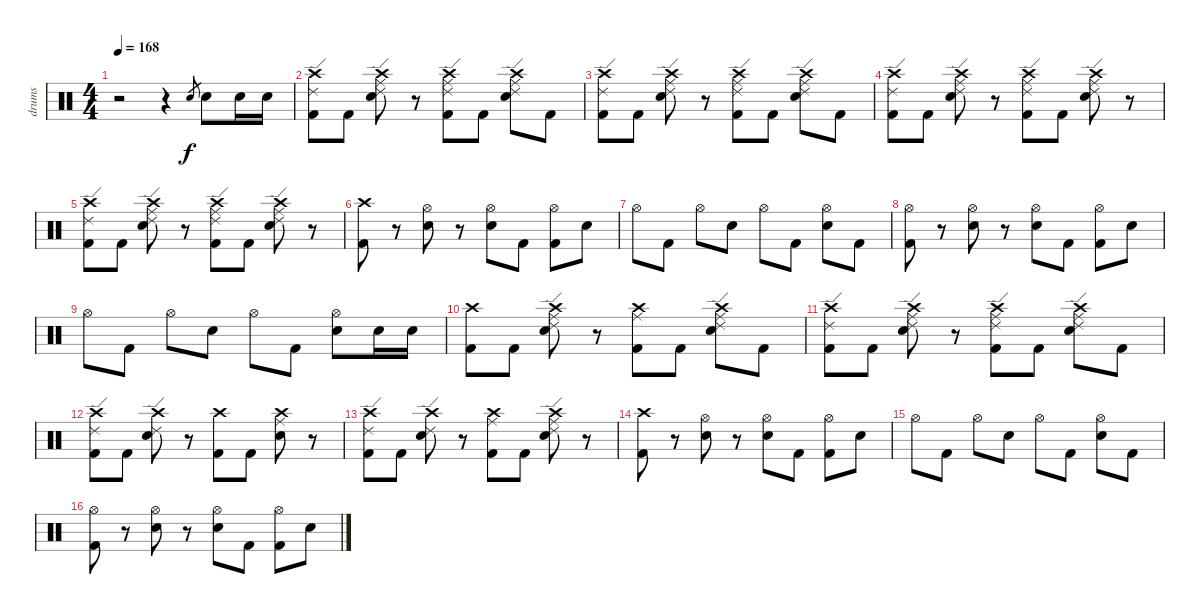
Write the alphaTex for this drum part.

\track ("drums" "drums") {instrument percussion}
\staff {score}
\articulation defaults
\ts (4 4)
\tempo 168
\clef neutral
\ks c
r.2{dy f} r.4 "Snare (hit) 2".8{gr} "Snare (hit) 2".8 "Snare (hit) 2".16 "Snare (hit) 2".16 |
("Crash high (hit)" "Ride (edge) 2" "Kick (hit) 2").8 "Kick (hit) 2".8 ("Crash high (hit)" "Ride (edge) 2" "Ride (middle)" "Snare (hit) 2").8 r.8 ("Crash high (hit)" "Ride (edge) 2" "Ride (middle)" "Kick (hit) 2").8 "Kick (hit) 2".8 ("Crash high (hit)" "Ride (edge) 2" "Ride (middle)" "Snare (hit) 2").8 "Kick (hit) 2".8 |
("Crash high (hit)" "Ride (edge) 2" "Kick (hit) 2").8 "Kick (hit) 2".8 ("Crash high (hit)" "Ride (edge) 2" "Ride (middle)" "Snare (hit) 2").8 r.8 ("Crash high (hit)" "Ride (edge) 2" "Ride (middle)" "Kick (hit) 2").8 "Kick (hit) 2".8 ("Crash high (hit)" "Ride (edge) 2" "Ride (middle)" "Snare (hit) 2").8 "Kick (hit) 2".8 |
("Crash high (hit)" "Ride (edge) 2" "Kick (hit) 2").8 "Kick (hit) 2".8 ("Crash high (hit)" "Ride (edge) 2" "Ride (middle)" "Snare (hit) 2").8 r.8 ("Crash high (hit)" "Ride (edge) 2" "Ride (middle)" "Kick (hit) 2").8 "Kick (hit) 2".8 ("Crash high (hit)" "Ride (edge) 2" "Ride (middle)" "Snare (hit) 2").8 r.8 |
("Crash high (hit)" "Ride (edge) 2" "Kick (hit) 2").8 "Kick (hit) 2".8 ("Crash high (hit)" "Ride (edge) 2" "Ride (middle)" "Snare (hit) 2").8 r.8 ("Crash high (hit)" "Ride (edge) 2" "Ride (middle)" "Kick (hit) 2").8 "Kick (hit) 2".8 ("Crash high (hit)" "Ride (edge) 2" "Ride (middle)" "Snare (hit) 2").8 r.8 |
("Crash high (hit)" "Kick (hit) 2").8 r.8 ("Hi-Hat (open)" "Snare (hit) 2").8 r.8 ("Hi-Hat (open)" "Snare (hit) 2").8 "Kick (hit) 2".8 ("Hi-Hat (open)" "Kick (hit) 2").8 "Snare (hit) 2".8 |
"Hi-Hat (open)".8 "Kick (hit) 2".8 "Hi-Hat (open)".8 "Snare (hit) 2".8 "Hi-Hat (open)".8 "Kick (hit) 2".8 ("Hi-Hat (open)" "Snare (hit) 2").8 "Kick (hit) 2".8 |
("Hi-Hat (open)" "Kick (hit) 2").8 r.8 ("Hi-Hat (open)" "Snare (hit) 2").8 r.8 ("Hi-Hat (open)" "Snare (hit) 2").8 "Kick (hit) 2".8 ("Hi-Hat (open)" "Kick (hit) 2").8 "Snare (hit) 2".8 |
"Hi-Hat (open)".8 "Kick (hit) 2".8 "Hi-Hat (open)".8 "Snare (hit) 2".8 "Hi-Hat (open)".8 "Kick (hit) 2".8 ("Hi-Hat (open)" "Snare (hit) 2").8 "Snare (hit) 2".16 "Snare (hit) 2".16 |
("Crash high (hit)" "Kick (hit) 2").8 "Kick (hit) 2".8 ("Crash high (hit)" "Ride (edge) 2" "Ride (middle)" "Snare (hit) 2").8 r.8 ("Crash high (hit)" "Ride (middle)" "Kick (hit) 2").8 "Kick (hit) 2".8 ("Crash high (hit)" "Ride (edge) 2" "Ride (middle)" "Snare (hit) 2").8 "Kick (hit) 2".8 |
("Crash high (hit)" "Ride (edge) 2" "Kick (hit) 2").8 "Kick (hit) 2".8 ("Crash high (hit)" "Ride (edge) 2" "Ride (middle)" "Snare (hit) 2").8 r.8 ("Crash high (hit)" "Ride (edge) 2" "Ride (middle)" "Kick (hit) 2").8 "Kick (hit) 2".8 ("Crash high (hit)" "Ride (edge) 2" "Ride (middle)" "Snare (hit) 2").8 "Kick (hit) 2".8 |
("Crash high (hit)" "Ride (edge) 2" "Kick (hit) 2").8 "Kick (hit) 2".8 ("Crash high (hit)" "Ride (edge) 2" "Snare (hit) 2").8 r.8 ("Crash high (hit)" "Kick (hit) 2").8 "Kick (hit) 2".8 ("Crash high (hit)" "Ride (middle)" "Snare (hit) 2").8 r.8 |
("Crash high (hit)" "Ride (edge) 2" "Kick (hit) 2").8 "Kick (hit) 2".8 ("Crash high (hit)" "Ride (edge) 2" "Snare (hit) 2").8 r.8 ("Crash high (hit)" "Ride (middle)" "Kick (hit) 2").8 "Kick (hit) 2".8 ("Crash high (hit)" "Ride (edge) 2" "Ride (middle)" "Snare (hit) 2").8 r.8 |
("Crash high (hit)" "Kick (hit) 2").8 r.8 ("Hi-Hat (open)" "Snare (hit) 2").8 r.8 ("Hi-Hat (open)" "Snare (hit) 2").8 "Kick (hit) 2".8 ("Hi-Hat (open)" "Kick (hit) 2").8 "Snare (hit) 2".8 |
"Hi-Hat (open)".8 "Kick (hit) 2".8 "Hi-Hat (open)".8 "Snare (hit) 2".8 "Hi-Hat (open)".8 "Kick (hit) 2".8 ("Hi-Hat (open)" "Snare (hit) 2").8 "Kick (hit) 2".8 |
("Hi-Hat (open)" "Kick (hit) 2").8 r.8 ("Hi-Hat (open)" "Snare (hit) 2").8 r.8 ("Hi-Hat (open)" "Snare (hit) 2").8 "Kick (hit) 2".8 ("Hi-Hat (open)" "Kick (hit) 2").8 "Snare (hit) 2".8
